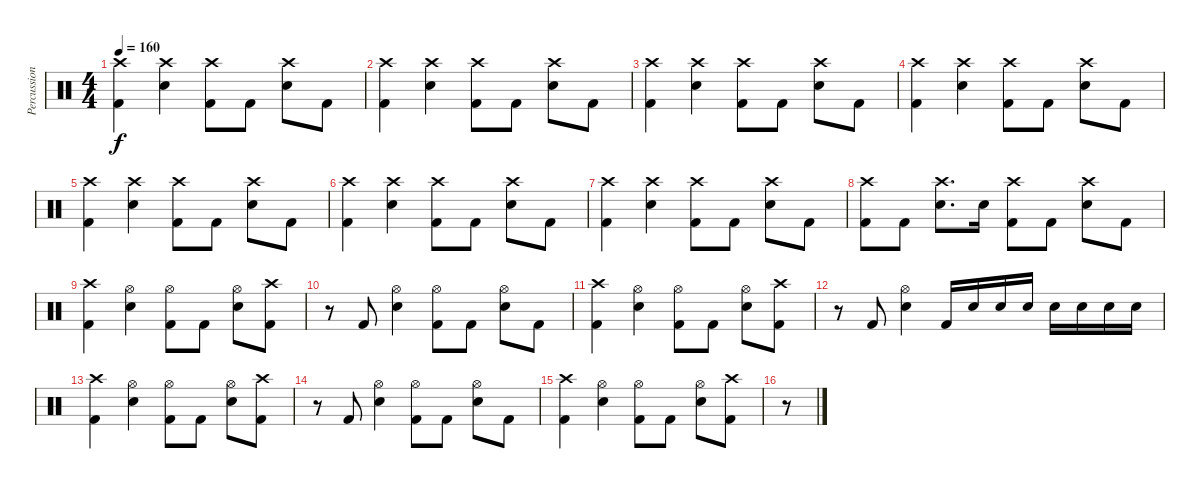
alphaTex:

\track ("Percussion" "Percussion") {instrument percussion}
\staff {score}
\articulation defaults
\ts (4 4)
\tempo 160
\clef neutral
\ks c
("Crash high (hit)" "Kick (hit) 2").4{dy f} ("Crash high (hit)" "Electric Snare (hit)").4 ("Crash high (hit)" "Kick (hit) 2").8 "Kick (hit) 2".8 ("Crash high (hit)" "Electric Snare (hit)").8 "Kick (hit) 2".8 |
("Crash high (hit)" "Kick (hit) 2").4 ("Crash high (hit)" "Electric Snare (hit)").4 ("Crash high (hit)" "Kick (hit) 2").8 "Kick (hit) 2".8 ("Crash high (hit)" "Electric Snare (hit)").8 "Kick (hit) 2".8 |
("Crash high (hit)" "Kick (hit) 2").4 ("Crash high (hit)" "Electric Snare (hit)").4 ("Crash high (hit)" "Kick (hit) 2").8 "Kick (hit) 2".8 ("Crash high (hit)" "Electric Snare (hit)").8 "Kick (hit) 2".8 |
("Crash high (hit)" "Kick (hit) 2").4 ("Crash high (hit)" "Electric Snare (hit)").4 ("Crash high (hit)" "Kick (hit) 2").8 "Kick (hit) 2".8 ("Crash high (hit)" "Electric Snare (hit)").8 "Kick (hit) 2".8 |
("Crash high (hit)" "Kick (hit) 2").4 ("Crash high (hit)" "Electric Snare (hit)").4 ("Crash high (hit)" "Kick (hit) 2").8 "Kick (hit) 2".8 ("Crash high (hit)" "Electric Snare (hit)").8 "Kick (hit) 2".8 |
("Crash high (hit)" "Kick (hit) 2").4 ("Crash high (hit)" "Electric Snare (hit)").4 ("Crash high (hit)" "Kick (hit) 2").8 "Kick (hit) 2".8 ("Crash high (hit)" "Electric Snare (hit)").8 "Kick (hit) 2".8 |
("Crash high (hit)" "Kick (hit) 2").4 ("Crash high (hit)" "Electric Snare (hit)").4 ("Crash high (hit)" "Kick (hit) 2").8 "Kick (hit) 2".8 ("Crash high (hit)" "Electric Snare (hit)").8 "Kick (hit) 2".8 |
("Crash high (hit)" "Kick (hit) 2").8 "Kick (hit) 2".8 ("Crash high (hit)" "Electric Snare (hit)").8{d} "Electric Snare (hit)".16 ("Crash high (hit)" "Kick (hit) 2").8 "Kick (hit) 2".8 ("Crash high (hit)" "Electric Snare (hit)").8 "Kick (hit) 2".8 |
("Crash high (hit)" "Kick (hit) 2").4 ("Hi-Hat (open)" "Electric Snare (hit)").4 ("Hi-Hat (open)" "Kick (hit) 2").8 "Kick (hit) 2".8 ("Hi-Hat (open)" "Electric Snare (hit)").8 ("Crash high (hit)" "Kick (hit) 2").8 |
r.8 "Kick (hit) 2".8 ("Hi-Hat (open)" "Electric Snare (hit)").4 ("Hi-Hat (open)" "Kick (hit) 2").8 "Kick (hit) 2".8 ("Hi-Hat (open)" "Electric Snare (hit)").8 "Kick (hit) 2".8 |
("Crash high (hit)" "Kick (hit) 2").4 ("Hi-Hat (open)" "Electric Snare (hit)").4 ("Hi-Hat (open)" "Kick (hit) 2").8 "Kick (hit) 2".8 ("Hi-Hat (open)" "Electric Snare (hit)").8 ("Crash high (hit)" "Kick (hit) 2").8 |
r.8 "Kick (hit) 2".8 ("Hi-Hat (open)" "Electric Snare (hit)").4 "Kick (hit) 2".16 "Electric Snare (hit)".16 "Electric Snare (hit)".16 "Electric Snare (hit)".16 "Electric Snare (hit)".16 "Electric Snare (hit)".16 "Electric Snare (hit)".16 "Electric Snare (hit)".16 |
("Crash high (hit)" "Kick (hit) 2").4 ("Hi-Hat (open)" "Electric Snare (hit)").4 ("Hi-Hat (open)" "Kick (hit) 2").8 "Kick (hit) 2".8 ("Hi-Hat (open)" "Electric Snare (hit)").8 ("Crash high (hit)" "Kick (hit) 2").8 |
r.8 "Kick (hit) 2".8 ("Hi-Hat (open)" "Electric Snare (hit)").4 ("Hi-Hat (open)" "Kick (hit) 2").8 "Kick (hit) 2".8 ("Hi-Hat (open)" "Electric Snare (hit)").8 "Kick (hit) 2".8 |
("Crash high (hit)" "Kick (hit) 2").4 ("Hi-Hat (open)" "Electric Snare (hit)").4 ("Hi-Hat (open)" "Kick (hit) 2").8 "Kick (hit) 2".8 ("Hi-Hat (open)" "Electric Snare (hit)").8 ("Crash high (hit)" "Kick (hit) 2").8 |
r.8
